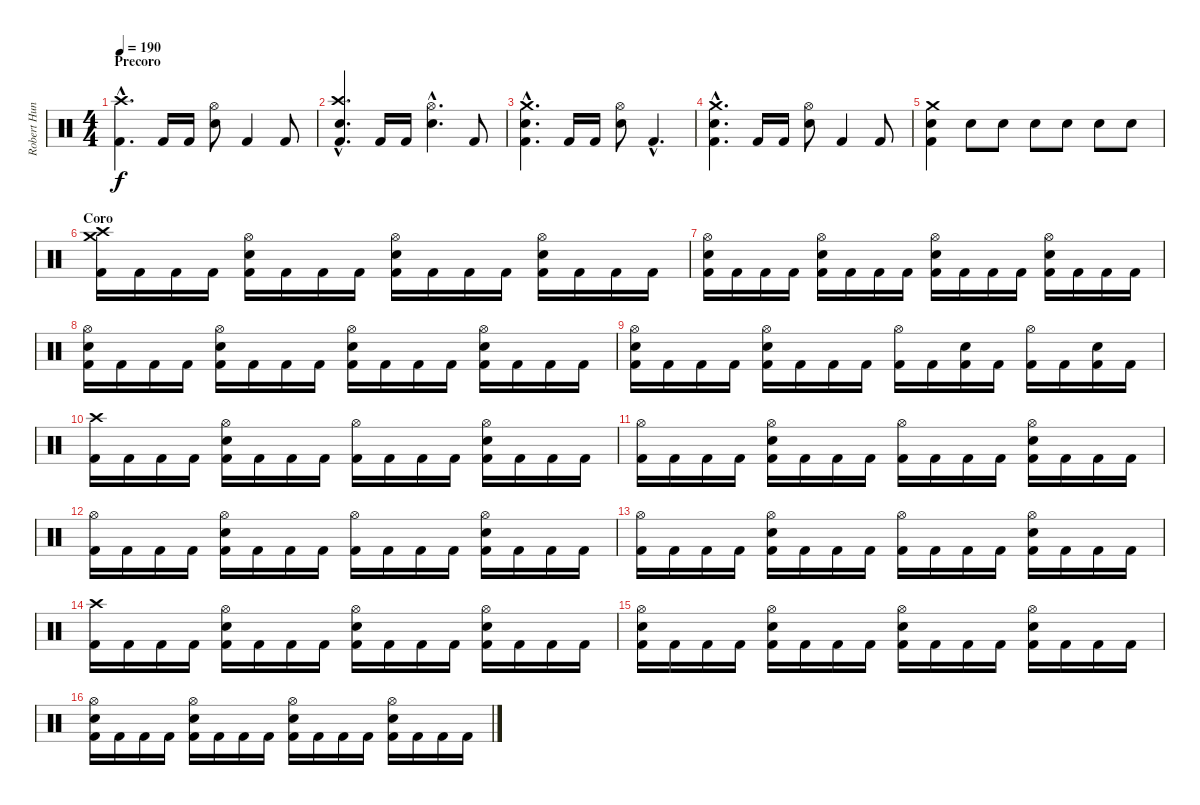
\track ("Robert Hunecke" "Robert Hun") {instrument percussion}
\staff {score}
\articulation defaults
\ts (4 4)
\section ("" "Precoro")
\tempo 190
\clef neutral
\ks c
("Kick (hit) 2"{hac} "Crash high (hit)"{hac}).4{d dy f} "Kick (hit) 2".16 "Kick (hit) 2".16 ("Electric Snare (hit)" "Hi-Hat (open)").8 "Kick (hit) 2".4 "Kick (hit) 2".8 |
("Kick (hit) 2"{hac} "Electric Snare (hit)"{hac} "Crash high (hit)"{hac}).4{d} "Kick (hit) 2".16 "Kick (hit) 2".16 ("Electric Snare (hit)"{hac} "Hi-Hat (open)"{hac}).4{d} "Kick (hit) 2".8 |
("Kick (hit) 2"{hac} "Electric Snare (hit)"{hac} "Crash medium (hit)"{hac}).4{d} "Kick (hit) 2".16 "Kick (hit) 2".16 ("Electric Snare (hit)" "Hi-Hat (open)").8 "Kick (hit) 2"{hac}.4{d} |
("Kick (hit) 2"{hac} "Electric Snare (hit)"{hac} "Crash medium (hit)"{hac}).4{d} "Kick (hit) 2".16 "Kick (hit) 2".16 ("Electric Snare (hit)" "Hi-Hat (open)").8 "Kick (hit) 2".4 "Kick (hit) 2".8 |
("Kick (hit) 2" "Electric Snare (hit)" "Crash medium (hit)").4 "Electric Snare (hit)".8 "Electric Snare (hit)".8 "Electric Snare (hit)".8 "Electric Snare (hit)".8 "Electric Snare (hit)".8 "Electric Snare (hit)".8 |
\section ("" "Coro")
("Kick (hit) 2" "Crash high (hit)" "Crash medium (hit)").16 "Kick (hit) 2".16 "Kick (hit) 2".16 "Kick (hit) 2".16 ("Kick (hit) 2" "Electric Snare (hit)" "Hi-Hat (open)").16 "Kick (hit) 2".16 "Kick (hit) 2".16 "Kick (hit) 2".16 ("Kick (hit) 2" "Electric Snare (hit)" "Hi-Hat (open)").16 "Kick (hit) 2".16 "Kick (hit) 2".16 "Kick (hit) 2".16 ("Kick (hit) 2" "Electric Snare (hit)" "Hi-Hat (open)").16 "Kick (hit) 2".16 "Kick (hit) 2".16 "Kick (hit) 2".16 |
("Kick (hit) 2" "Electric Snare (hit)" "Hi-Hat (open)").16 "Kick (hit) 2".16 "Kick (hit) 2".16 "Kick (hit) 2".16 ("Kick (hit) 2" "Electric Snare (hit)" "Hi-Hat (open)").16 "Kick (hit) 2".16 "Kick (hit) 2".16 "Kick (hit) 2".16 ("Kick (hit) 2" "Electric Snare (hit)" "Hi-Hat (open)").16 "Kick (hit) 2".16 "Kick (hit) 2".16 "Kick (hit) 2".16 ("Kick (hit) 2" "Electric Snare (hit)" "Hi-Hat (open)").16 "Kick (hit) 2".16 "Kick (hit) 2".16 "Kick (hit) 2".16 |
("Kick (hit) 2" "Electric Snare (hit)" "Hi-Hat (open)").16 "Kick (hit) 2".16 "Kick (hit) 2".16 "Kick (hit) 2".16 ("Kick (hit) 2" "Electric Snare (hit)" "Hi-Hat (open)").16 "Kick (hit) 2".16 "Kick (hit) 2".16 "Kick (hit) 2".16 ("Kick (hit) 2" "Electric Snare (hit)" "Hi-Hat (open)").16 "Kick (hit) 2".16 "Kick (hit) 2".16 "Kick (hit) 2".16 ("Kick (hit) 2" "Electric Snare (hit)" "Hi-Hat (open)").16 "Kick (hit) 2".16 "Kick (hit) 2".16 "Kick (hit) 2".16 |
("Kick (hit) 2" "Electric Snare (hit)" "Hi-Hat (open)").16 "Kick (hit) 2".16 "Kick (hit) 2".16 "Kick (hit) 2".16 ("Kick (hit) 2" "Electric Snare (hit)" "Hi-Hat (open)").16 "Kick (hit) 2".16 "Kick (hit) 2".16 "Kick (hit) 2".16 ("Kick (hit) 2" "Hi-Hat (open)").16 "Kick (hit) 2".16 ("Kick (hit) 2" "Electric Snare (hit)").16 "Kick (hit) 2".16 ("Kick (hit) 2" "Hi-Hat (open)").16 "Kick (hit) 2".16 ("Kick (hit) 2" "Electric Snare (hit)").16 "Kick (hit) 2".16 |
("Kick (hit) 2" "Crash high (hit)").16 "Kick (hit) 2".16 "Kick (hit) 2".16 "Kick (hit) 2".16 ("Kick (hit) 2" "Electric Snare (hit)" "Hi-Hat (open)").16 "Kick (hit) 2".16 "Kick (hit) 2".16 "Kick (hit) 2".16 ("Kick (hit) 2" "Hi-Hat (open)").16 "Kick (hit) 2".16 "Kick (hit) 2".16 "Kick (hit) 2".16 ("Kick (hit) 2" "Electric Snare (hit)" "Hi-Hat (open)").16 "Kick (hit) 2".16 "Kick (hit) 2".16 "Kick (hit) 2".16 |
("Kick (hit) 2" "Hi-Hat (open)").16 "Kick (hit) 2".16 "Kick (hit) 2".16 "Kick (hit) 2".16 ("Kick (hit) 2" "Electric Snare (hit)" "Hi-Hat (open)").16 "Kick (hit) 2".16 "Kick (hit) 2".16 "Kick (hit) 2".16 ("Kick (hit) 2" "Hi-Hat (open)").16 "Kick (hit) 2".16 "Kick (hit) 2".16 "Kick (hit) 2".16 ("Kick (hit) 2" "Electric Snare (hit)" "Hi-Hat (open)").16 "Kick (hit) 2".16 "Kick (hit) 2".16 "Kick (hit) 2".16 |
("Kick (hit) 2" "Hi-Hat (open)").16 "Kick (hit) 2".16 "Kick (hit) 2".16 "Kick (hit) 2".16 ("Kick (hit) 2" "Electric Snare (hit)" "Hi-Hat (open)").16 "Kick (hit) 2".16 "Kick (hit) 2".16 "Kick (hit) 2".16 ("Kick (hit) 2" "Hi-Hat (open)").16 "Kick (hit) 2".16 "Kick (hit) 2".16 "Kick (hit) 2".16 ("Kick (hit) 2" "Electric Snare (hit)" "Hi-Hat (open)").16 "Kick (hit) 2".16 "Kick (hit) 2".16 "Kick (hit) 2".16 |
("Kick (hit) 2" "Hi-Hat (open)").16 "Kick (hit) 2".16 "Kick (hit) 2".16 "Kick (hit) 2".16 ("Kick (hit) 2" "Electric Snare (hit)" "Hi-Hat (open)").16 "Kick (hit) 2".16 "Kick (hit) 2".16 "Kick (hit) 2".16 ("Kick (hit) 2" "Hi-Hat (open)").16 "Kick (hit) 2".16 "Kick (hit) 2".16 "Kick (hit) 2".16 ("Kick (hit) 2" "Electric Snare (hit)" "Hi-Hat (open)").16 "Kick (hit) 2".16 "Kick (hit) 2".16 "Kick (hit) 2".16 |
("Kick (hit) 2" "Crash high (hit)").16 "Kick (hit) 2".16 "Kick (hit) 2".16 "Kick (hit) 2".16 ("Kick (hit) 2" "Electric Snare (hit)" "Hi-Hat (open)").16 "Kick (hit) 2".16 "Kick (hit) 2".16 "Kick (hit) 2".16 ("Kick (hit) 2" "Electric Snare (hit)" "Hi-Hat (open)").16 "Kick (hit) 2".16 "Kick (hit) 2".16 "Kick (hit) 2".16 ("Kick (hit) 2" "Electric Snare (hit)" "Hi-Hat (open)").16 "Kick (hit) 2".16 "Kick (hit) 2".16 "Kick (hit) 2".16 |
("Kick (hit) 2" "Electric Snare (hit)" "Hi-Hat (open)").16 "Kick (hit) 2".16 "Kick (hit) 2".16 "Kick (hit) 2".16 ("Kick (hit) 2" "Electric Snare (hit)" "Hi-Hat (open)").16 "Kick (hit) 2".16 "Kick (hit) 2".16 "Kick (hit) 2".16 ("Kick (hit) 2" "Electric Snare (hit)" "Hi-Hat (open)").16 "Kick (hit) 2".16 "Kick (hit) 2".16 "Kick (hit) 2".16 ("Kick (hit) 2" "Electric Snare (hit)" "Hi-Hat (open)").16 "Kick (hit) 2".16 "Kick (hit) 2".16 "Kick (hit) 2".16 |
("Kick (hit) 2" "Electric Snare (hit)" "Hi-Hat (open)").16 "Kick (hit) 2".16 "Kick (hit) 2".16 "Kick (hit) 2".16 ("Kick (hit) 2" "Electric Snare (hit)" "Hi-Hat (open)").16 "Kick (hit) 2".16 "Kick (hit) 2".16 "Kick (hit) 2".16 ("Kick (hit) 2" "Electric Snare (hit)" "Hi-Hat (open)").16 "Kick (hit) 2".16 "Kick (hit) 2".16 "Kick (hit) 2".16 ("Kick (hit) 2" "Electric Snare (hit)" "Hi-Hat (open)").16 "Kick (hit) 2".16 "Kick (hit) 2".16 "Kick (hit) 2".16
